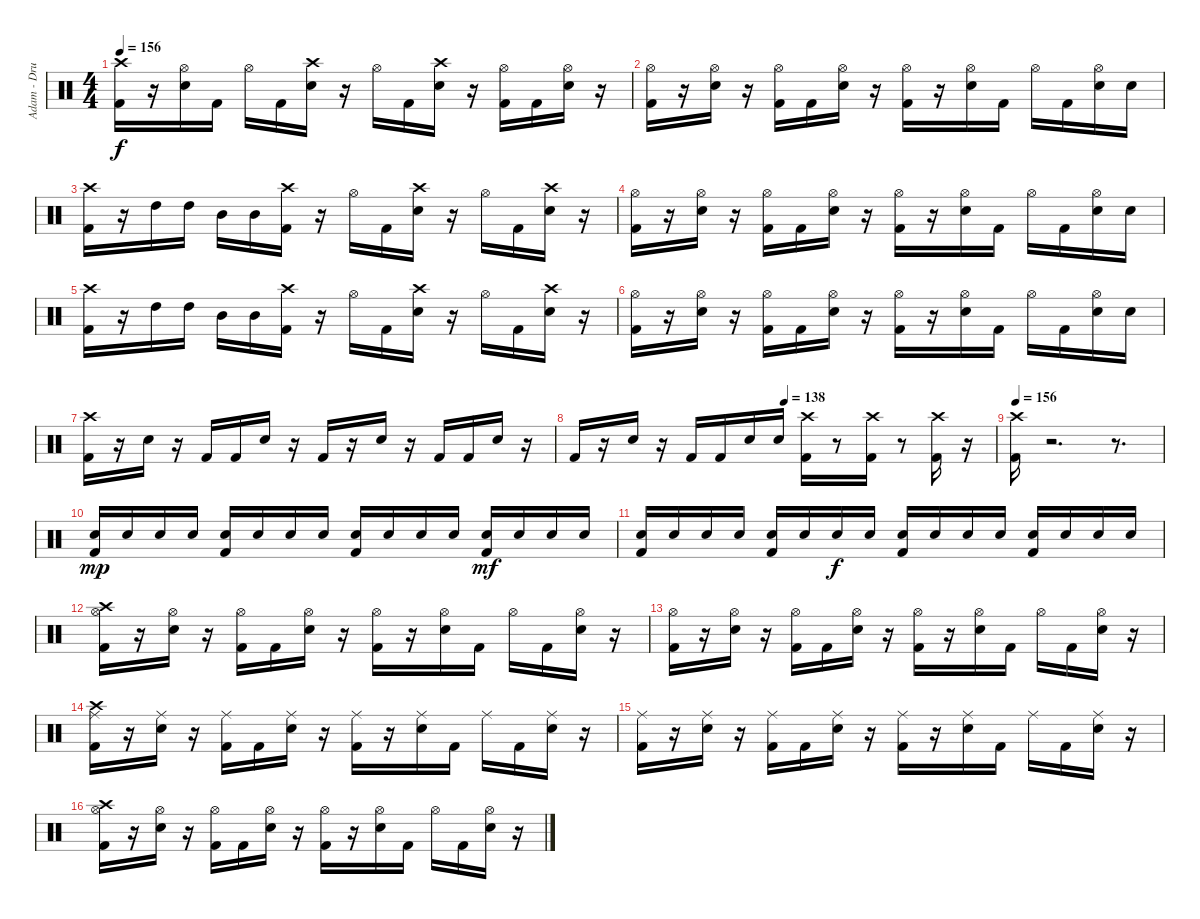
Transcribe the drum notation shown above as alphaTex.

\track ("Adam - Drums" "Adam - Dru") {instrument percussion}
\staff {score}
\articulation defaults
\ts (4 4)
\tempo 156
\clef neutral
\ks c
("Crash high (hit)" "Kick (hit) 2").16{dy f} r.16 ("Snare (hit) 2" "Hi-Hat (open)").16 "Kick (hit) 2".16 "Hi-Hat (open)".16 "Kick (hit) 2".16 ("Crash high (hit)" "Snare (hit) 2").16 r.16 "Hi-Hat (open)".16 "Kick (hit) 2".16 ("Snare (hit) 2" "Crash high (hit)").16 r.16 ("Kick (hit) 2" "Hi-Hat (open)").16 "Kick (hit) 2".16 ("Snare (hit) 2" "Hi-Hat (open)").16 r.16 |
("Kick (hit) 2" "Hi-Hat (open)").16 r.16 ("Hi-Hat (open)" "Snare (hit) 2").16 r.16 ("Hi-Hat (open)" "Kick (hit) 2").16 "Kick (hit) 2".16 ("Hi-Hat (open)" "Snare (hit) 2").16 r.16 ("Hi-Hat (open)" "Kick (hit) 2").16 r.16 ("Hi-Hat (open)" "Snare (hit) 2").16 "Kick (hit) 2".16 "Hi-Hat (open)".16 "Kick (hit) 2".16 ("Hi-Hat (open)" "Snare (hit) 2").16 "Snare (hit) 2".16 |
("Kick (hit) 2" "Crash high (hit)").16 r.16 "High Tom (hit)".16 "High Tom (hit)".16 "Mid Tom (hit)".16 "Mid Tom (hit)".16 ("Crash high (hit)" "Kick (hit) 2").16 r.16 "Hi-Hat (open)".16 "Kick (hit) 2".16 ("Crash high (hit)" "Snare (hit) 2").16 r.16 "Hi-Hat (open)".16 "Kick (hit) 2".16 ("Snare (hit) 2" "Crash high (hit)").16 r.16 |
("Kick (hit) 2" "Hi-Hat (open)").16 r.16 ("Hi-Hat (open)" "Snare (hit) 2").16 r.16 ("Hi-Hat (open)" "Kick (hit) 2").16 "Kick (hit) 2".16 ("Hi-Hat (open)" "Snare (hit) 2").16 r.16 ("Hi-Hat (open)" "Kick (hit) 2").16 r.16 ("Hi-Hat (open)" "Snare (hit) 2").16 "Kick (hit) 2".16 "Hi-Hat (open)".16 "Kick (hit) 2".16 ("Hi-Hat (open)" "Snare (hit) 2").16 "Snare (hit) 2".16 |
("Kick (hit) 2" "Crash high (hit)").16 r.16 "High Tom (hit)".16 "High Tom (hit)".16 "Mid Tom (hit)".16 "Mid Tom (hit)".16 ("Crash high (hit)" "Kick (hit) 2").16 r.16 "Hi-Hat (open)".16 "Kick (hit) 2".16 ("Crash high (hit)" "Snare (hit) 2").16 r.16 "Hi-Hat (open)".16 "Kick (hit) 2".16 ("Snare (hit) 2" "Crash high (hit)").16 r.16 |
("Kick (hit) 2" "Hi-Hat (open)").16 r.16 ("Hi-Hat (open)" "Snare (hit) 2").16 r.16 ("Hi-Hat (open)" "Kick (hit) 2").16 "Kick (hit) 2".16 ("Hi-Hat (open)" "Snare (hit) 2").16 r.16 ("Hi-Hat (open)" "Kick (hit) 2").16 r.16 ("Hi-Hat (open)" "Snare (hit) 2").16 "Kick (hit) 2".16 "Hi-Hat (open)".16 "Kick (hit) 2".16 ("Hi-Hat (open)" "Snare (hit) 2").16 "Snare (hit) 2".16 |
("Crash high (hit)" "Kick (hit) 2").16 r.16 "Snare (hit) 2".16 r.16 "Kick (hit) 2".16 "Kick (hit) 2".16 "Snare (hit) 2".16 r.16 "Kick (hit) 2".16 r.16 "Snare (hit) 2".16 r.16 "Kick (hit) 2".16 "Kick (hit) 2".16 "Snare (hit) 2".16 r.16 |
\tempo (138 0.5)
"Kick (hit) 2".16 r.16 "Snare (hit) 2".16 r.16 "Kick (hit) 2".16 "Kick (hit) 2".16 "Snare (hit) 2".16 "Snare (hit) 2".16 ("Crash high (hit)" "Kick (hit) 2").16 r.8 ("Kick (hit) 2" "Crash high (hit)").16 r.8 ("Crash high (hit)" "Kick (hit) 2").16 r.16 |
\tempo 156
("Crash high (hit)" "Kick (hit) 2").16 r.2{d} r.8{d} |
("Kick (hit) 2" "Snare (hit) 2").16{dy mp} "Snare (hit) 2".16 "Snare (hit) 2".16 "Snare (hit) 2".16 ("Kick (hit) 2" "Snare (hit) 2").16 "Snare (hit) 2".16 "Snare (hit) 2".16 "Snare (hit) 2".16 ("Snare (hit) 2" "Kick (hit) 2").16 "Snare (hit) 2".16 "Snare (hit) 2".16 "Snare (hit) 2".16 ("Kick (hit) 2" "Snare (hit) 2").16{dy mf} "Snare (hit) 2".16 "Snare (hit) 2".16 "Snare (hit) 2".16 |
("Kick (hit) 2" "Snare (hit) 2").16 "Snare (hit) 2".16 "Snare (hit) 2".16 "Snare (hit) 2".16 ("Kick (hit) 2" "Snare (hit) 2").16 "Snare (hit) 2".16 "Snare (hit) 2".16{dy f} "Snare (hit) 2".16 ("Kick (hit) 2" "Snare (hit) 2").16 "Snare (hit) 2".16 "Snare (hit) 2".16 "Snare (hit) 2".16 ("Kick (hit) 2" "Snare (hit) 2").16 "Snare (hit) 2".16 "Snare (hit) 2".16 "Snare (hit) 2".16 |
("Hi-Hat (open)" "Crash high (hit)" "Kick (hit) 2").16 r.16 ("Hi-Hat (open)" "Snare (hit) 2").16 r.16 ("Hi-Hat (open)" "Kick (hit) 2").16 "Kick (hit) 2".16 ("Hi-Hat (open)" "Snare (hit) 2").16 r.16 ("Hi-Hat (open)" "Kick (hit) 2").16 r.16 ("Hi-Hat (open)" "Snare (hit) 2").16 "Kick (hit) 2".16 "Hi-Hat (open)".16 "Kick (hit) 2".16 ("Hi-Hat (open)" "Snare (hit) 2").16 r.16 |
("Hi-Hat (open)" "Kick (hit) 2").16 r.16 ("Hi-Hat (open)" "Snare (hit) 2").16 r.16 ("Hi-Hat (open)" "Kick (hit) 2").16 "Kick (hit) 2".16 ("Hi-Hat (open)" "Snare (hit) 2").16 r.16 ("Hi-Hat (open)" "Kick (hit) 2").16 r.16 ("Hi-Hat (open)" "Snare (hit) 2").16 "Kick (hit) 2".16 "Hi-Hat (open)".16 "Kick (hit) 2".16 ("Hi-Hat (open)" "Snare (hit) 2").16 r.16 |
("Crash high (hit)" "Kick (hit) 2" "Ride (middle)").16 r.16 ("Snare (hit) 2" "Ride (middle)").16 r.16 ("Kick (hit) 2" "Ride (middle)").16 "Kick (hit) 2".16 ("Snare (hit) 2" "Ride (middle)").16 r.16 ("Ride (middle)" "Kick (hit) 2").16 r.16 ("Snare (hit) 2" "Ride (middle)").16 "Kick (hit) 2".16 "Ride (middle)".16 "Kick (hit) 2".16 ("Snare (hit) 2" "Ride (middle)").16 r.16 |
("Kick (hit) 2" "Ride (middle)").16 r.16 ("Snare (hit) 2" "Ride (middle)").16 r.16 ("Kick (hit) 2" "Ride (middle)").16 "Kick (hit) 2".16 ("Snare (hit) 2" "Ride (middle)").16 r.16 ("Kick (hit) 2" "Ride (middle)").16 r.16 ("Snare (hit) 2" "Ride (middle)").16 "Kick (hit) 2".16 "Ride (middle)".16 "Kick (hit) 2".16 ("Snare (hit) 2" "Ride (middle)").16 r.16 |
("Hi-Hat (open)" "Crash high (hit)" "Kick (hit) 2").16 r.16 ("Hi-Hat (open)" "Snare (hit) 2").16 r.16 ("Hi-Hat (open)" "Kick (hit) 2").16 "Kick (hit) 2".16 ("Hi-Hat (open)" "Snare (hit) 2").16 r.16 ("Hi-Hat (open)" "Kick (hit) 2").16 r.16 ("Hi-Hat (open)" "Snare (hit) 2").16 "Kick (hit) 2".16 "Hi-Hat (open)".16 "Kick (hit) 2".16 ("Hi-Hat (open)" "Snare (hit) 2").16 r.16
